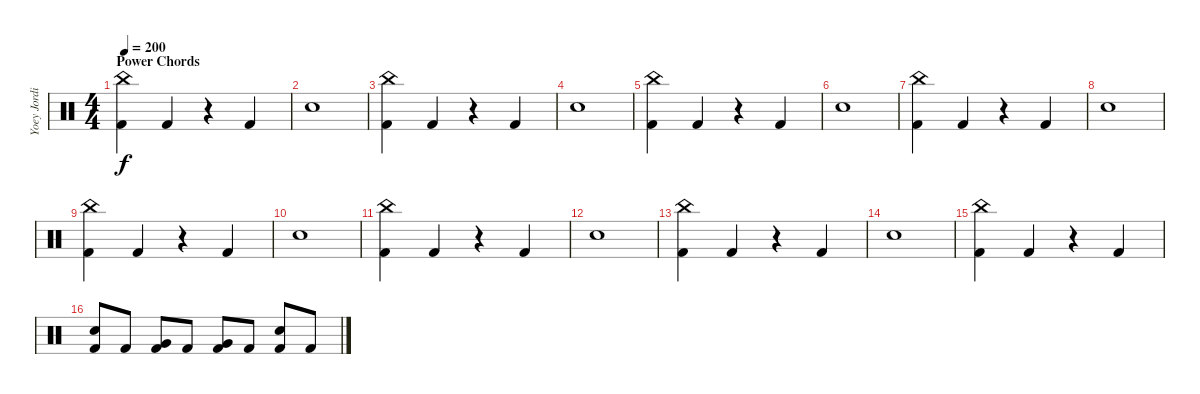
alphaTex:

\track ("Yoey Jordison" "Yoey Jordi") {instrument percussion}
\staff {score}
\articulation defaults
\ts (4 4)
\section ("" "Power Chords")
\tempo 200
\clef neutral
\ks c
("China (hit)" "Kick (hit) 2").4{dy f} "Kick (hit) 2".4 r.4 "Kick (hit) 2".4 |
"Snare (hit) 2".1 |
("China (hit)" "Kick (hit) 2").4 "Kick (hit) 2".4 r.4 "Kick (hit) 2".4 |
"Snare (hit) 2".1 |
("China (hit)" "Kick (hit) 2").4 "Kick (hit) 2".4 r.4 "Kick (hit) 2".4 |
"Snare (hit) 2".1 |
("China (hit)" "Kick (hit) 2").4 "Kick (hit) 2".4 r.4 "Kick (hit) 2".4 |
"Snare (hit) 2".1 |
("China (hit)" "Kick (hit) 2").4 "Kick (hit) 2".4 r.4 "Kick (hit) 2".4 |
"Snare (hit) 2".1 |
("China (hit)" "Kick (hit) 2").4 "Kick (hit) 2".4 r.4 "Kick (hit) 2".4 |
"Snare (hit) 2".1 |
("China (hit)" "Kick (hit) 2").4 "Kick (hit) 2".4 r.4 "Kick (hit) 2".4 |
"Snare (hit) 2".1 |
("China (hit)" "Kick (hit) 2").4 "Kick (hit) 2".4 r.4 "Kick (hit) 2".4 |
("Snare (hit) 2" "Kick (hit) 2").8 "Kick (hit) 2".8 ("Very Low Tom (hit)" "Kick (hit) 2").8 "Kick (hit) 2".8 ("Very Low Tom (hit)" "Kick (hit) 2").8 "Kick (hit) 2".8 ("Snare (hit) 2" "Kick (hit) 2").8 "Kick (hit) 2".8
